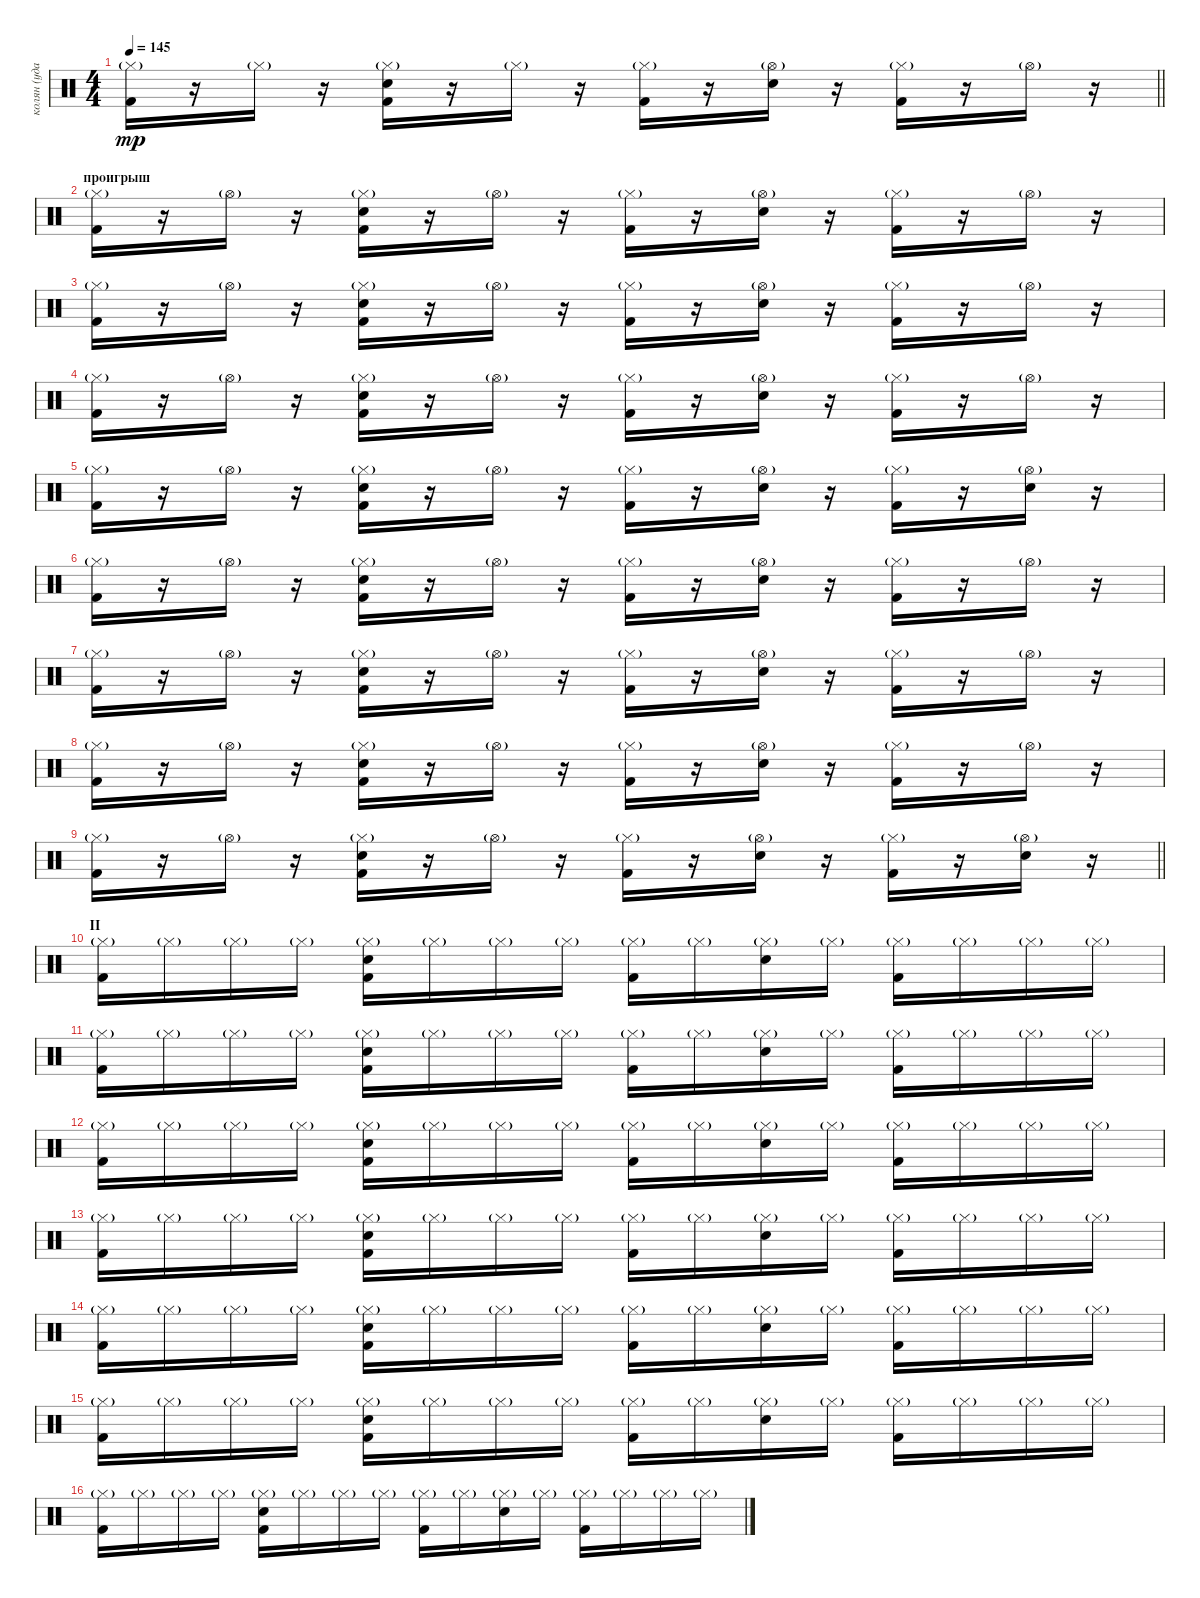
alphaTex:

\track ("колян (ударные)" "колян (уда") {instrument percussion}
\staff {score}
\articulation defaults
\ts (4 4)
\tempo 145
\clef neutral
\barLineRight lightlight
\ks c
("Kick (hit) 2" "Hi-Hat (closed)"{g}).16{dy mp} r.16 "Hi-Hat (closed)"{g}.16 r.16 ("Snare (hit) 2" "Kick (hit) 2" "Hi-Hat (closed)"{g}).16 r.16 "Hi-Hat (closed)"{g}.16 r.16 ("Kick (hit) 2" "Hi-Hat (closed)"{g}).16 r.16 ("Snare (hit) 2" "Hi-Hat (open)"{g}).16 r.16 ("Kick (hit) 2" "Hi-Hat (closed)"{g}).16 r.16 "Hi-Hat (open)"{g}.16 r.16 |
\section ("" "проигрыш")
("Kick (hit) 2" "Hi-Hat (closed)"{g}).16 r.16 "Hi-Hat (open)"{g}.16 r.16 ("Snare (hit) 2" "Kick (hit) 2" "Hi-Hat (closed)"{g}).16 r.16 "Hi-Hat (open)"{g}.16 r.16 ("Kick (hit) 2" "Hi-Hat (closed)"{g}).16 r.16 ("Snare (hit) 2" "Hi-Hat (open)"{g}).16 r.16 ("Kick (hit) 2" "Hi-Hat (closed)"{g}).16 r.16 "Hi-Hat (open)"{g}.16 r.16 |
("Kick (hit) 2" "Hi-Hat (closed)"{g}).16 r.16 "Hi-Hat (open)"{g}.16 r.16 ("Snare (hit) 2" "Kick (hit) 2" "Hi-Hat (closed)"{g}).16 r.16 "Hi-Hat (open)"{g}.16 r.16 ("Kick (hit) 2" "Hi-Hat (closed)"{g}).16 r.16 ("Snare (hit) 2" "Hi-Hat (open)"{g}).16 r.16 ("Kick (hit) 2" "Hi-Hat (closed)"{g}).16 r.16 "Hi-Hat (open)"{g}.16 r.16 |
("Kick (hit) 2" "Hi-Hat (closed)"{g}).16 r.16 "Hi-Hat (open)"{g}.16 r.16 ("Snare (hit) 2" "Kick (hit) 2" "Hi-Hat (closed)"{g}).16 r.16 "Hi-Hat (open)"{g}.16 r.16 ("Kick (hit) 2" "Hi-Hat (closed)"{g}).16 r.16 ("Snare (hit) 2" "Hi-Hat (open)"{g}).16 r.16 ("Kick (hit) 2" "Hi-Hat (closed)"{g}).16 r.16 "Hi-Hat (open)"{g}.16 r.16 |
("Kick (hit) 2" "Hi-Hat (closed)"{g}).16 r.16 "Hi-Hat (open)"{g}.16 r.16 ("Snare (hit) 2" "Kick (hit) 2" "Hi-Hat (closed)"{g}).16 r.16 "Hi-Hat (open)"{g}.16 r.16 ("Kick (hit) 2" "Hi-Hat (closed)"{g}).16 r.16 ("Snare (hit) 2" "Hi-Hat (open)"{g}).16 r.16 ("Kick (hit) 2" "Hi-Hat (closed)"{g}).16 r.16 ("Snare (hit) 2" "Hi-Hat (open)"{g}).16 r.16 |
("Kick (hit) 2" "Hi-Hat (closed)"{g}).16 r.16 "Hi-Hat (open)"{g}.16 r.16 ("Snare (hit) 2" "Kick (hit) 2" "Hi-Hat (closed)"{g}).16 r.16 "Hi-Hat (open)"{g}.16 r.16 ("Kick (hit) 2" "Hi-Hat (closed)"{g}).16 r.16 ("Snare (hit) 2" "Hi-Hat (open)"{g}).16 r.16 ("Kick (hit) 2" "Hi-Hat (closed)"{g}).16 r.16 "Hi-Hat (open)"{g}.16 r.16 |
("Kick (hit) 2" "Hi-Hat (closed)"{g}).16 r.16 "Hi-Hat (open)"{g}.16 r.16 ("Snare (hit) 2" "Kick (hit) 2" "Hi-Hat (closed)"{g}).16 r.16 "Hi-Hat (open)"{g}.16 r.16 ("Kick (hit) 2" "Hi-Hat (closed)"{g}).16 r.16 ("Snare (hit) 2" "Hi-Hat (open)"{g}).16 r.16 ("Kick (hit) 2" "Hi-Hat (closed)"{g}).16 r.16 "Hi-Hat (open)"{g}.16 r.16 |
("Kick (hit) 2" "Hi-Hat (closed)"{g}).16 r.16 "Hi-Hat (open)"{g}.16 r.16 ("Snare (hit) 2" "Kick (hit) 2" "Hi-Hat (closed)"{g}).16 r.16 "Hi-Hat (open)"{g}.16 r.16 ("Kick (hit) 2" "Hi-Hat (closed)"{g}).16 r.16 ("Snare (hit) 2" "Hi-Hat (open)"{g}).16 r.16 ("Kick (hit) 2" "Hi-Hat (closed)"{g}).16 r.16 "Hi-Hat (open)"{g}.16 r.16 |
\barLineRight lightlight
("Kick (hit) 2" "Hi-Hat (closed)"{g}).16 r.16 "Hi-Hat (open)"{g}.16 r.16 ("Snare (hit) 2" "Kick (hit) 2" "Hi-Hat (closed)"{g}).16 r.16 "Hi-Hat (open)"{g}.16 r.16 ("Kick (hit) 2" "Hi-Hat (closed)"{g}).16 r.16 ("Snare (hit) 2" "Hi-Hat (open)"{g}).16 r.16 ("Kick (hit) 2" "Hi-Hat (closed)"{g}).16 r.16 ("Snare (hit) 2" "Hi-Hat (open)"{g}).16 r.16 |
\section ("" "II")
("Kick (hit) 2" "Hi-Hat (closed)"{g}).16 "Hi-Hat (closed)"{g}.16 "Hi-Hat (closed)"{g}.16 "Hi-Hat (closed)"{g}.16 ("Snare (hit) 2" "Kick (hit) 2" "Hi-Hat (closed)"{g}).16 "Hi-Hat (closed)"{g}.16 "Hi-Hat (closed)"{g}.16 "Hi-Hat (closed)"{g}.16 ("Kick (hit) 2" "Hi-Hat (closed)"{g}).16 "Hi-Hat (closed)"{g}.16 ("Snare (hit) 2" "Hi-Hat (closed)"{g}).16 "Hi-Hat (closed)"{g}.16 ("Kick (hit) 2" "Hi-Hat (closed)"{g}).16 "Hi-Hat (closed)"{g}.16 "Hi-Hat (closed)"{g}.16 "Hi-Hat (closed)"{g}.16 |
("Kick (hit) 2" "Hi-Hat (closed)"{g}).16 "Hi-Hat (closed)"{g}.16 "Hi-Hat (closed)"{g}.16 "Hi-Hat (closed)"{g}.16 ("Snare (hit) 2" "Kick (hit) 2" "Hi-Hat (closed)"{g}).16 "Hi-Hat (closed)"{g}.16 "Hi-Hat (closed)"{g}.16 "Hi-Hat (closed)"{g}.16 ("Kick (hit) 2" "Hi-Hat (closed)"{g}).16 "Hi-Hat (closed)"{g}.16 ("Snare (hit) 2" "Hi-Hat (closed)"{g}).16 "Hi-Hat (closed)"{g}.16 ("Kick (hit) 2" "Hi-Hat (closed)"{g}).16 "Hi-Hat (closed)"{g}.16 "Hi-Hat (closed)"{g}.16 "Hi-Hat (closed)"{g}.16 |
("Kick (hit) 2" "Hi-Hat (closed)"{g}).16 "Hi-Hat (closed)"{g}.16 "Hi-Hat (closed)"{g}.16 "Hi-Hat (closed)"{g}.16 ("Snare (hit) 2" "Kick (hit) 2" "Hi-Hat (closed)"{g}).16 "Hi-Hat (closed)"{g}.16 "Hi-Hat (closed)"{g}.16 "Hi-Hat (closed)"{g}.16 ("Kick (hit) 2" "Hi-Hat (closed)"{g}).16 "Hi-Hat (closed)"{g}.16 ("Snare (hit) 2" "Hi-Hat (closed)"{g}).16 "Hi-Hat (closed)"{g}.16 ("Kick (hit) 2" "Hi-Hat (closed)"{g}).16 "Hi-Hat (closed)"{g}.16 "Hi-Hat (closed)"{g}.16 "Hi-Hat (closed)"{g}.16 |
("Kick (hit) 2" "Hi-Hat (closed)"{g}).16 "Hi-Hat (closed)"{g}.16 "Hi-Hat (closed)"{g}.16 "Hi-Hat (closed)"{g}.16 ("Snare (hit) 2" "Kick (hit) 2" "Hi-Hat (closed)"{g}).16 "Hi-Hat (closed)"{g}.16 "Hi-Hat (closed)"{g}.16 "Hi-Hat (closed)"{g}.16 ("Kick (hit) 2" "Hi-Hat (closed)"{g}).16 "Hi-Hat (closed)"{g}.16 ("Snare (hit) 2" "Hi-Hat (closed)"{g}).16 "Hi-Hat (closed)"{g}.16 ("Kick (hit) 2" "Hi-Hat (closed)"{g}).16 "Hi-Hat (closed)"{g}.16 "Hi-Hat (closed)"{g}.16 "Hi-Hat (closed)"{g}.16 |
("Kick (hit) 2" "Hi-Hat (closed)"{g}).16 "Hi-Hat (closed)"{g}.16 "Hi-Hat (closed)"{g}.16 "Hi-Hat (closed)"{g}.16 ("Snare (hit) 2" "Kick (hit) 2" "Hi-Hat (closed)"{g}).16 "Hi-Hat (closed)"{g}.16 "Hi-Hat (closed)"{g}.16 "Hi-Hat (closed)"{g}.16 ("Kick (hit) 2" "Hi-Hat (closed)"{g}).16 "Hi-Hat (closed)"{g}.16 ("Snare (hit) 2" "Hi-Hat (closed)"{g}).16 "Hi-Hat (closed)"{g}.16 ("Kick (hit) 2" "Hi-Hat (closed)"{g}).16 "Hi-Hat (closed)"{g}.16 "Hi-Hat (closed)"{g}.16 "Hi-Hat (closed)"{g}.16 |
("Kick (hit) 2" "Hi-Hat (closed)"{g}).16 "Hi-Hat (closed)"{g}.16 "Hi-Hat (closed)"{g}.16 "Hi-Hat (closed)"{g}.16 ("Snare (hit) 2" "Kick (hit) 2" "Hi-Hat (closed)"{g}).16 "Hi-Hat (closed)"{g}.16 "Hi-Hat (closed)"{g}.16 "Hi-Hat (closed)"{g}.16 ("Kick (hit) 2" "Hi-Hat (closed)"{g}).16 "Hi-Hat (closed)"{g}.16 ("Snare (hit) 2" "Hi-Hat (closed)"{g}).16 "Hi-Hat (closed)"{g}.16 ("Kick (hit) 2" "Hi-Hat (closed)"{g}).16 "Hi-Hat (closed)"{g}.16 "Hi-Hat (closed)"{g}.16 "Hi-Hat (closed)"{g}.16 |
("Kick (hit) 2" "Hi-Hat (closed)"{g}).16 "Hi-Hat (closed)"{g}.16 "Hi-Hat (closed)"{g}.16 "Hi-Hat (closed)"{g}.16 ("Snare (hit) 2" "Kick (hit) 2" "Hi-Hat (closed)"{g}).16 "Hi-Hat (closed)"{g}.16 "Hi-Hat (closed)"{g}.16 "Hi-Hat (closed)"{g}.16 ("Kick (hit) 2" "Hi-Hat (closed)"{g}).16 "Hi-Hat (closed)"{g}.16 ("Snare (hit) 2" "Hi-Hat (closed)"{g}).16 "Hi-Hat (closed)"{g}.16 ("Kick (hit) 2" "Hi-Hat (closed)"{g}).16 "Hi-Hat (closed)"{g}.16 "Hi-Hat (closed)"{g}.16 "Hi-Hat (closed)"{g}.16
